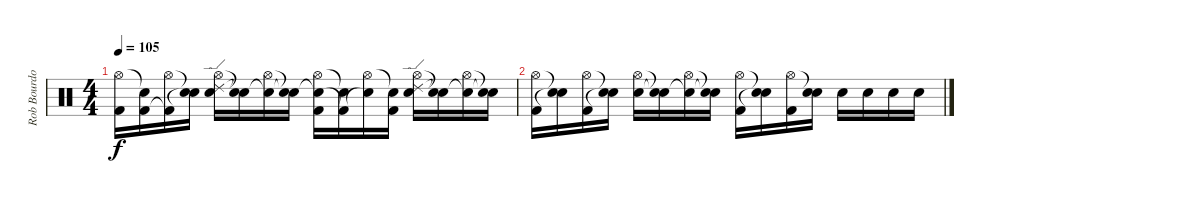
\track ("Rob Bourdon" "Rob Bourdo") {instrument percussion}
\staff {score}
\articulation defaults
\ts (4 4)
\tempo 105
\clef neutral
\ks c
("Hi-Hat (open)" "Kick (hit) 2").16{dy f} ("Snare (hit)"{t} "Kick (hit) 2").16 ("Hi-Hat (open)" "Kick (hit) 2"{t}).16 ("Snare (hit)"{t} "Snare (hit)"{t}).16 ("Hi-Hat (open)" "Ride (edge) 2" "Electric Snare (hit)").16 ("Snare (hit)"{t} "Snare (hit)"{t}).16 ("Hi-Hat (open)" "Snare (hit)"{t}).16 ("Snare (hit)"{t} "Snare (hit)"{t}).16 ("Hi-Hat (open)" "Snare (hit)"{t} "Kick (hit) 2").16 ("Snare (hit)"{t} "Kick (hit) 2"{t}).16 ("Hi-Hat (open)" "Snare (hit)"{t}).16 ("Snare (hit)"{t} "Kick (hit) 2").16 ("Hi-Hat (open)" "Ride (edge) 2" "Electric Snare (hit)").16 ("Snare (hit)"{t} "Snare (hit)"{t}).16 ("Hi-Hat (open)" "Snare (hit)"{t}).16 ("Snare (hit)"{t} "Snare (hit)"{t}).16 |
("Hi-Hat (open)" "Kick (hit) 2").16 ("Snare (hit)"{t} "Snare (hit)"{t}).16 ("Hi-Hat (open)" "Kick (hit) 2").16 ("Snare (hit)"{t} "Snare (hit)"{t}).16 ("Hi-Hat (open)" "Electric Snare (hit)").16 ("Snare (hit)"{t} "Snare (hit)"{t}).16 ("Hi-Hat (open)" "Snare (hit)"{t}).16 ("Snare (hit)"{t} "Snare (hit)"{t}).16 ("Hi-Hat (open)" "Kick (hit) 2").16 ("Snare (hit)"{t} "Snare (hit)"{t}).16 ("Hi-Hat (open)" "Kick (hit) 2").16 ("Snare (hit)"{t} "Electric Snare (hit)").16 "Electric Snare (hit)".16 "Electric Snare (hit)".16 "Electric Snare (hit)".16 "Electric Snare (hit)".16
